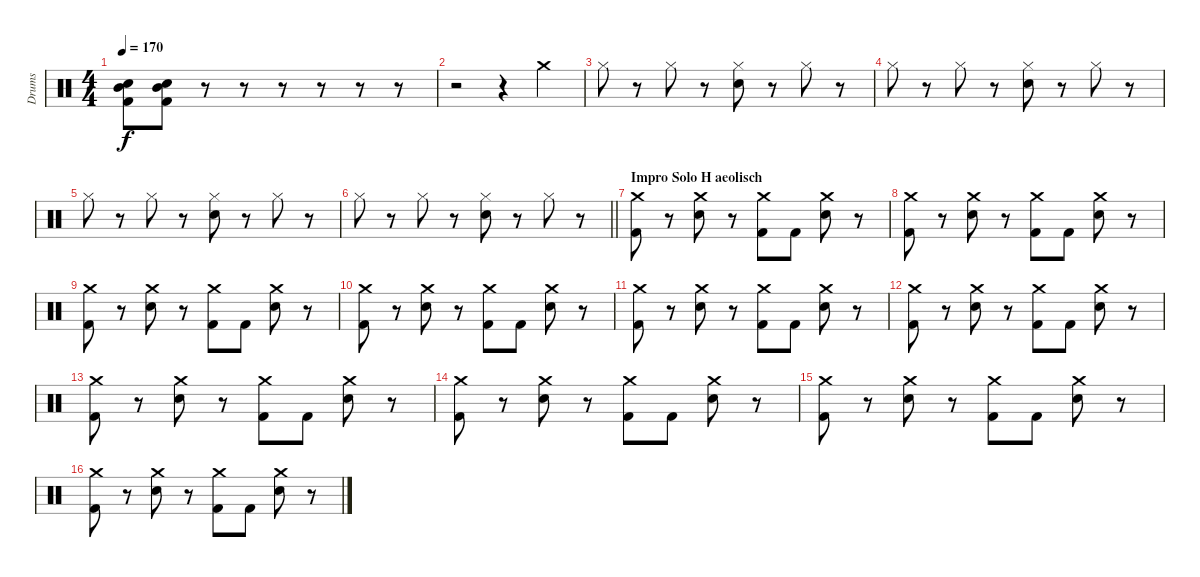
\track ("Drums" "Drums") {instrument percussion}
\staff {score}
\articulation defaults
\ts (4 4)
\tempo 170
\clef neutral
\ks c
("Electric Snare (hit)" "Kick (hit) 2" "Mid Tom (hit)").8{dy f} ("Electric Snare (hit)" "Kick (hit) 2" "Mid Tom (hit)").8 r.8 r.8 r.8 r.8 r.8 r.8 |
r.2 r.4 "Crash medium (hit)".4 |
"Hi-Hat (closed)".8 r.8 "Hi-Hat (closed)".8 r.8 ("Electric Snare (hit)" "Hi-Hat (closed)").8 r.8 "Hi-Hat (closed)".8 r.8 |
"Hi-Hat (closed)".8 r.8 "Hi-Hat (closed)".8 r.8 ("Electric Snare (hit)" "Hi-Hat (closed)").8 r.8 "Hi-Hat (closed)".8 r.8 |
"Hi-Hat (closed)".8 r.8 "Hi-Hat (closed)".8 r.8 ("Electric Snare (hit)" "Hi-Hat (closed)").8 r.8 "Hi-Hat (closed)".8 r.8 |
\barLineRight lightlight "Hi-Hat (closed)".8
r.8 "Hi-Hat (closed)".8 r.8 ("Electric Snare (hit)" "Hi-Hat (closed)").8 r.8 "Hi-Hat (closed)".8 r.8 |
\section ("" "Impro Solo H aeolisch")
("Crash medium (hit)" "Kick (hit) 2").8 r.8 ("Crash medium (hit)" "Electric Snare (hit)").8 r.8 ("Crash medium (hit)" "Kick (hit) 2").8 "Kick (hit) 2".8 ("Crash medium (hit)" "Electric Snare (hit)").8 r.8 |
("Crash medium (hit)" "Kick (hit) 2").8 r.8 ("Crash medium (hit)" "Electric Snare (hit)").8 r.8 ("Crash medium (hit)" "Kick (hit) 2").8 "Kick (hit) 2".8 ("Crash medium (hit)" "Electric Snare (hit)").8 r.8 |
("Crash medium (hit)" "Kick (hit) 2").8 r.8 ("Crash medium (hit)" "Electric Snare (hit)").8 r.8 ("Crash medium (hit)" "Kick (hit) 2").8 "Kick (hit) 2".8 ("Crash medium (hit)" "Electric Snare (hit)").8 r.8 |
("Crash medium (hit)" "Kick (hit) 2").8 r.8 ("Crash medium (hit)" "Electric Snare (hit)").8 r.8 ("Crash medium (hit)" "Kick (hit) 2").8 "Kick (hit) 2".8 ("Crash medium (hit)" "Electric Snare (hit)").8 r.8 |
("Crash medium (hit)" "Kick (hit) 2").8 r.8 ("Crash medium (hit)" "Electric Snare (hit)").8 r.8 ("Crash medium (hit)" "Kick (hit) 2").8 "Kick (hit) 2".8 ("Crash medium (hit)" "Electric Snare (hit)").8 r.8 |
("Crash medium (hit)" "Kick (hit) 2").8 r.8 ("Crash medium (hit)" "Electric Snare (hit)").8 r.8 ("Crash medium (hit)" "Kick (hit) 2").8 "Kick (hit) 2".8 ("Crash medium (hit)" "Electric Snare (hit)").8 r.8 |
("Crash medium (hit)" "Kick (hit) 2").8 r.8 ("Crash medium (hit)" "Electric Snare (hit)").8 r.8 ("Crash medium (hit)" "Kick (hit) 2").8 "Kick (hit) 2".8 ("Crash medium (hit)" "Electric Snare (hit)").8 r.8 |
("Crash medium (hit)" "Kick (hit) 2").8 r.8 ("Crash medium (hit)" "Electric Snare (hit)").8 r.8 ("Crash medium (hit)" "Kick (hit) 2").8 "Kick (hit) 2".8 ("Crash medium (hit)" "Electric Snare (hit)").8 r.8 |
("Crash medium (hit)" "Kick (hit) 2").8 r.8 ("Crash medium (hit)" "Electric Snare (hit)").8 r.8 ("Crash medium (hit)" "Kick (hit) 2").8 "Kick (hit) 2".8 ("Crash medium (hit)" "Electric Snare (hit)").8 r.8 |
("Crash medium (hit)" "Kick (hit) 2").8 r.8 ("Crash medium (hit)" "Electric Snare (hit)").8 r.8 ("Crash medium (hit)" "Kick (hit) 2").8 "Kick (hit) 2".8 ("Crash medium (hit)" "Electric Snare (hit)").8 r.8
